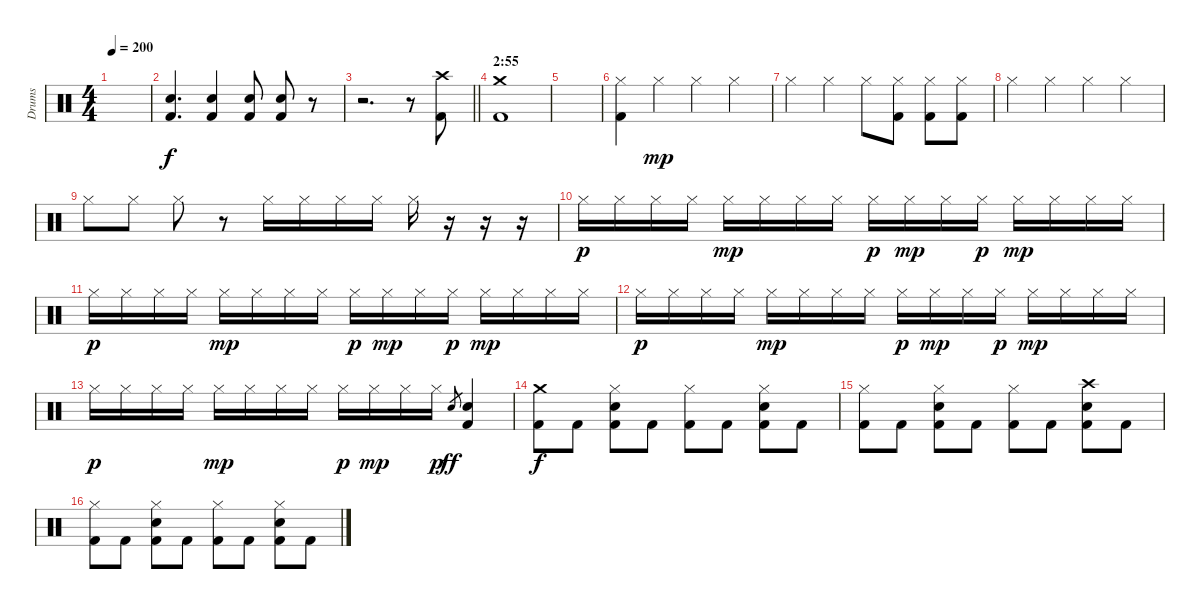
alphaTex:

\track ("Drums" "Drums") {instrument percussion}
\staff {score}
\articulation defaults
\ts (4 4)
\tempo 200
\clef neutral
\ks c
|
("Snare (hit) 2" "Kick (hit) 2").4{d} ("Snare (hit) 2" "Kick (hit) 2").4 ("Snare (hit) 2" "Kick (hit) 2").8 ("Snare (hit) 2" "Kick (hit) 2").8 r.8 |
\barLineRight lightlight
r.2{d} r.8 ("Crash high (hit)" "Kick (hit) 2").8 |
\section ("" "2:55")
("Crash medium (hit)" "Kick (hit) 2").1 |
|
("Hi-Hat (closed)" "Kick (hit) 2").4 "Hi-Hat (closed)".4{dy mp} "Hi-Hat (closed)".4 "Hi-Hat (closed)".4 |
"Hi-Hat (closed)".4 "Hi-Hat (closed)".4 "Hi-Hat (closed)".8 ("Hi-Hat (closed)" "Kick (hit) 2").8 ("Hi-Hat (closed)" "Kick (hit) 2").8 ("Hi-Hat (closed)" "Kick (hit) 2").8 |
"Hi-Hat (closed)".4 "Hi-Hat (closed)".4 "Hi-Hat (closed)".4 "Hi-Hat (closed)".4 |
"Hi-Hat (closed)".8 "Hi-Hat (closed)".8 "Hi-Hat (closed)".8 r.8 "Hi-Hat (closed)".16 "Hi-Hat (closed)".16 "Hi-Hat (closed)".16 "Hi-Hat (closed)".16 "Hi-Hat (closed)".16 r.16 r.16 r.16 |
"Hi-Hat (closed)".16{dy p} "Hi-Hat (closed)".16 "Hi-Hat (closed)".16 "Hi-Hat (closed)".16 "Hi-Hat (closed)".16{dy mp} "Hi-Hat (closed)".16 "Hi-Hat (closed)".16 "Hi-Hat (closed)".16 "Hi-Hat (closed)".16{dy p} "Hi-Hat (closed)".16{dy mp} "Hi-Hat (closed)".16 "Hi-Hat (closed)".16{dy p} "Hi-Hat (closed)".16{dy mp} "Hi-Hat (closed)".16 "Hi-Hat (closed)".16 "Hi-Hat (closed)".16 |
"Hi-Hat (closed)".16{dy p} "Hi-Hat (closed)".16 "Hi-Hat (closed)".16 "Hi-Hat (closed)".16 "Hi-Hat (closed)".16{dy mp} "Hi-Hat (closed)".16 "Hi-Hat (closed)".16 "Hi-Hat (closed)".16 "Hi-Hat (closed)".16{dy p} "Hi-Hat (closed)".16{dy mp} "Hi-Hat (closed)".16 "Hi-Hat (closed)".16{dy p} "Hi-Hat (closed)".16{dy mp} "Hi-Hat (closed)".16 "Hi-Hat (closed)".16 "Hi-Hat (closed)".16 |
"Hi-Hat (closed)".16{dy p} "Hi-Hat (closed)".16 "Hi-Hat (closed)".16 "Hi-Hat (closed)".16 "Hi-Hat (closed)".16{dy mp} "Hi-Hat (closed)".16 "Hi-Hat (closed)".16 "Hi-Hat (closed)".16 "Hi-Hat (closed)".16{dy p} "Hi-Hat (closed)".16{dy mp} "Hi-Hat (closed)".16 "Hi-Hat (closed)".16{dy p} "Hi-Hat (closed)".16{dy mp} "Hi-Hat (closed)".16 "Hi-Hat (closed)".16 "Hi-Hat (closed)".16 |
"Hi-Hat (closed)".16{dy p} "Hi-Hat (closed)".16 "Hi-Hat (closed)".16 "Hi-Hat (closed)".16 "Hi-Hat (closed)".16{dy mp} "Hi-Hat (closed)".16 "Hi-Hat (closed)".16 "Hi-Hat (closed)".16 "Hi-Hat (closed)".16{dy p} "Hi-Hat (closed)".16{dy mp} "Hi-Hat (closed)".16 "Hi-Hat (closed)".16{dy p} "Snare (hit) 2".8{gr dy ff} ("Snare (hit) 2" "Kick (hit) 2").4 |
("Crash medium (hit)" "Kick (hit) 2").8{dy f} "Kick (hit) 2".8 ("Hi-Hat (closed)" "Snare (hit) 2" "Kick (hit) 2").8 "Kick (hit) 2".8 ("Hi-Hat (closed)" "Kick (hit) 2").8 "Kick (hit) 2".8 ("Hi-Hat (closed)" "Snare (hit) 2" "Kick (hit) 2").8 "Kick (hit) 2".8 |
("Hi-Hat (closed)" "Kick (hit) 2").8 "Kick (hit) 2".8 ("Hi-Hat (closed)" "Snare (hit) 2" "Kick (hit) 2").8 "Kick (hit) 2".8 ("Hi-Hat (closed)" "Kick (hit) 2").8 "Kick (hit) 2".8 ("Crash high (hit)" "Snare (hit) 2" "Kick (hit) 2").8 "Kick (hit) 2".8 |
("Hi-Hat (closed)" "Kick (hit) 2").8 "Kick (hit) 2".8 ("Hi-Hat (closed)" "Snare (hit) 2" "Kick (hit) 2").8 "Kick (hit) 2".8 ("Hi-Hat (closed)" "Kick (hit) 2").8 "Kick (hit) 2".8 ("Hi-Hat (closed)" "Snare (hit) 2" "Kick (hit) 2").8 "Kick (hit) 2".8
